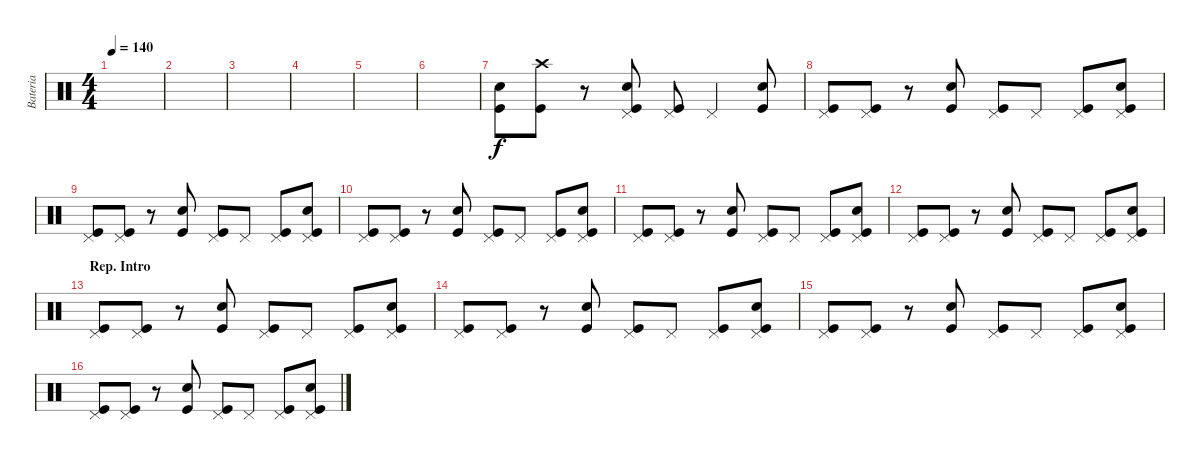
\track ("Bateria" "Bateria") {instrument percussion}
\staff {score}
\articulation defaults
\ts (4 4)
\tempo 140
\clef neutral
\ks c
|
|
|
|
|
|
("Kick (hit)" "Snare (hit) 2").8 ("Kick (hit)" "Crash high (hit)").8 r.8 ("Kick (hit)" "Snare (hit) 2" "Pedal Hi-Hat (hit)").8 ("Kick (hit)" "Pedal Hi-Hat (hit)").8 "Pedal Hi-Hat (hit)".4 ("Kick (hit)" "Snare (hit) 2").8 |
("Kick (hit)" "Pedal Hi-Hat (hit)").8 ("Kick (hit)" "Pedal Hi-Hat (hit)").8 r.8 ("Kick (hit)" "Snare (hit) 2").8 ("Kick (hit)" "Pedal Hi-Hat (hit)").8 "Pedal Hi-Hat (hit)".8 ("Kick (hit)" "Pedal Hi-Hat (hit)").8 ("Kick (hit)" "Snare (hit) 2" "Pedal Hi-Hat (hit)").8 |
("Kick (hit)" "Pedal Hi-Hat (hit)").8 ("Kick (hit)" "Pedal Hi-Hat (hit)").8 r.8 ("Kick (hit)" "Snare (hit) 2").8 ("Kick (hit)" "Pedal Hi-Hat (hit)").8 "Pedal Hi-Hat (hit)".8 ("Kick (hit)" "Pedal Hi-Hat (hit)").8 ("Kick (hit)" "Snare (hit) 2" "Pedal Hi-Hat (hit)").8 |
("Kick (hit)" "Pedal Hi-Hat (hit)").8 ("Kick (hit)" "Pedal Hi-Hat (hit)").8 r.8 ("Kick (hit)" "Snare (hit) 2").8 ("Kick (hit)" "Pedal Hi-Hat (hit)").8 "Pedal Hi-Hat (hit)".8 ("Kick (hit)" "Pedal Hi-Hat (hit)").8 ("Kick (hit)" "Snare (hit) 2" "Pedal Hi-Hat (hit)").8 |
("Kick (hit)" "Pedal Hi-Hat (hit)").8 ("Kick (hit)" "Pedal Hi-Hat (hit)").8 r.8 ("Kick (hit)" "Snare (hit) 2").8 ("Kick (hit)" "Pedal Hi-Hat (hit)").8 "Pedal Hi-Hat (hit)".8 ("Kick (hit)" "Pedal Hi-Hat (hit)").8 ("Kick (hit)" "Snare (hit) 2" "Pedal Hi-Hat (hit)").8 |
("Kick (hit)" "Pedal Hi-Hat (hit)").8 ("Kick (hit)" "Pedal Hi-Hat (hit)").8 r.8 ("Kick (hit)" "Snare (hit) 2").8 ("Kick (hit)" "Pedal Hi-Hat (hit)").8 "Pedal Hi-Hat (hit)".8 ("Kick (hit)" "Pedal Hi-Hat (hit)").8 ("Kick (hit)" "Snare (hit) 2" "Pedal Hi-Hat (hit)").8 |
\section ("" "Rep. Intro")
("Kick (hit)" "Pedal Hi-Hat (hit)").8 ("Kick (hit)" "Pedal Hi-Hat (hit)").8 r.8 ("Kick (hit)" "Snare (hit) 2").8 ("Kick (hit)" "Pedal Hi-Hat (hit)").8 "Pedal Hi-Hat (hit)".8 ("Kick (hit)" "Pedal Hi-Hat (hit)").8 ("Kick (hit)" "Snare (hit) 2" "Pedal Hi-Hat (hit)").8 |
("Kick (hit)" "Pedal Hi-Hat (hit)").8 ("Kick (hit)" "Pedal Hi-Hat (hit)").8 r.8 ("Kick (hit)" "Snare (hit) 2").8 ("Kick (hit)" "Pedal Hi-Hat (hit)").8 "Pedal Hi-Hat (hit)".8 ("Kick (hit)" "Pedal Hi-Hat (hit)").8 ("Kick (hit)" "Snare (hit) 2" "Pedal Hi-Hat (hit)").8 |
("Kick (hit)" "Pedal Hi-Hat (hit)").8 ("Kick (hit)" "Pedal Hi-Hat (hit)").8 r.8 ("Kick (hit)" "Snare (hit) 2").8 ("Kick (hit)" "Pedal Hi-Hat (hit)").8 "Pedal Hi-Hat (hit)".8 ("Kick (hit)" "Pedal Hi-Hat (hit)").8 ("Kick (hit)" "Snare (hit) 2" "Pedal Hi-Hat (hit)").8 |
("Kick (hit)" "Pedal Hi-Hat (hit)").8 ("Kick (hit)" "Pedal Hi-Hat (hit)").8 r.8 ("Kick (hit)" "Snare (hit) 2").8 ("Kick (hit)" "Pedal Hi-Hat (hit)").8 "Pedal Hi-Hat (hit)".8 ("Kick (hit)" "Pedal Hi-Hat (hit)").8 ("Kick (hit)" "Snare (hit) 2" "Pedal Hi-Hat (hit)").8
